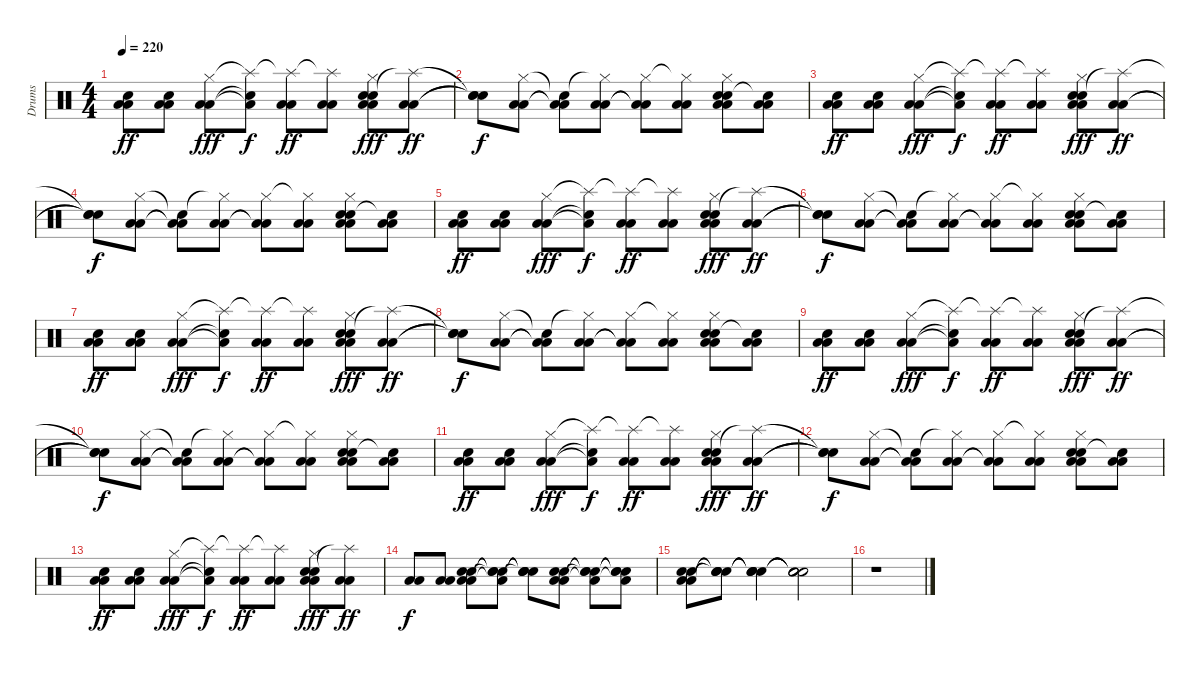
\track ("Drums" "Drums") {instrument percussion}
\staff {score}
\articulation defaults
\ts (4 4)
\tempo 220
\clef neutral
\ks c
("Low Floor Tom (hit)" "Low Floor Tom (hit)" "Electric Snare (hit)").8{dy ff} ("Low Floor Tom (hit)" "Low Floor Tom (hit)" "Electric Snare (hit)").8 ("Low Floor Tom (hit)" "Low Floor Tom (hit)" "Hi-Hat (closed)").8{dy fff} ("Low Floor Tom (hit)"{t} "Snare (hit)"{t} "Splash (hit)"{t}).8{dy f} ("Low Floor Tom (hit)" "Low Floor Tom (hit)" "Splash (hit)"{t}).8{dy ff} ("Low Floor Tom (hit)" "Low Floor Tom (hit)" "Splash (hit)"{t}).8 ("Low Floor Tom (hit)" "Low Floor Tom (hit)" "Electric Snare (hit)" "Snare (hit) 2" "Hi-Hat (closed)").8{dy fff} ("Low Floor Tom (hit)" "Low Floor Tom (hit)" "Splash (hit)"{t}).8{dy ff} |
("Snare (hit)"{t} "Snare (hit)"{t} "Snare (hit)"{t}).8{dy f} ("Low Floor Tom (hit)" "Low Floor Tom (hit)" "Hi-Hat (closed)").8 ("Low Floor Tom (hit)"{t} "Low Floor Tom (hit)"{t} "Snare (hit)"{t}).8 ("Low Floor Tom (hit)" "Low Floor Tom (hit)" "Hi-Hat (closed)"{t}).8 ("Low Floor Tom (hit)"{t} "Low Floor Tom (hit)"{t} "Hi-Hat (closed)").8 ("Low Floor Tom (hit)" "Low Floor Tom (hit)" "Hi-Hat (closed)"{t}).8 ("Low Floor Tom (hit)" "Low Floor Tom (hit)" "Electric Snare (hit)" "Snare (hit) 2" "Hi-Hat (closed)").8 ("Low Floor Tom (hit)" "Low Floor Tom (hit)" "Snare (hit)"{t}).8 |
("Low Floor Tom (hit)" "Low Floor Tom (hit)" "Electric Snare (hit)").8{dy ff} ("Low Floor Tom (hit)" "Low Floor Tom (hit)" "Electric Snare (hit)").8 ("Low Floor Tom (hit)" "Low Floor Tom (hit)" "Hi-Hat (closed)").8{dy fff} ("Low Floor Tom (hit)"{t} "Snare (hit)"{t} "Splash (hit)"{t}).8{dy f} ("Low Floor Tom (hit)" "Low Floor Tom (hit)" "Splash (hit)"{t}).8{dy ff} ("Low Floor Tom (hit)" "Low Floor Tom (hit)" "Splash (hit)"{t}).8 ("Low Floor Tom (hit)" "Low Floor Tom (hit)" "Electric Snare (hit)" "Snare (hit) 2" "Hi-Hat (closed)").8{dy fff} ("Low Floor Tom (hit)" "Low Floor Tom (hit)" "Splash (hit)"{t}).8{dy ff} |
("Snare (hit)"{t} "Snare (hit)"{t} "Snare (hit)"{t}).8{dy f} ("Low Floor Tom (hit)" "Low Floor Tom (hit)" "Hi-Hat (closed)").8 ("Low Floor Tom (hit)"{t} "Low Floor Tom (hit)"{t} "Snare (hit)"{t}).8 ("Low Floor Tom (hit)" "Low Floor Tom (hit)" "Hi-Hat (closed)"{t}).8 ("Low Floor Tom (hit)"{t} "Low Floor Tom (hit)"{t} "Hi-Hat (closed)").8 ("Low Floor Tom (hit)" "Low Floor Tom (hit)" "Hi-Hat (closed)"{t}).8 ("Low Floor Tom (hit)" "Low Floor Tom (hit)" "Electric Snare (hit)" "Snare (hit) 2" "Hi-Hat (closed)").8 ("Low Floor Tom (hit)" "Low Floor Tom (hit)" "Snare (hit)"{t}).8 |
("Low Floor Tom (hit)" "Low Floor Tom (hit)" "Electric Snare (hit)").8{dy ff} ("Low Floor Tom (hit)" "Low Floor Tom (hit)" "Electric Snare (hit)").8 ("Low Floor Tom (hit)" "Low Floor Tom (hit)" "Hi-Hat (closed)").8{dy fff} ("Low Floor Tom (hit)"{t} "Snare (hit)"{t} "Splash (hit)"{t}).8{dy f} ("Low Floor Tom (hit)" "Low Floor Tom (hit)" "Splash (hit)"{t}).8{dy ff} ("Low Floor Tom (hit)" "Low Floor Tom (hit)" "Splash (hit)"{t}).8 ("Low Floor Tom (hit)" "Low Floor Tom (hit)" "Electric Snare (hit)" "Snare (hit) 2" "Hi-Hat (closed)").8{dy fff} ("Low Floor Tom (hit)" "Low Floor Tom (hit)" "Splash (hit)"{t}).8{dy ff} |
("Snare (hit)"{t} "Snare (hit)"{t} "Snare (hit)"{t}).8{dy f} ("Low Floor Tom (hit)" "Low Floor Tom (hit)" "Hi-Hat (closed)").8 ("Low Floor Tom (hit)"{t} "Low Floor Tom (hit)"{t} "Snare (hit)"{t}).8 ("Low Floor Tom (hit)" "Low Floor Tom (hit)" "Hi-Hat (closed)"{t}).8 ("Low Floor Tom (hit)"{t} "Low Floor Tom (hit)"{t} "Hi-Hat (closed)").8 ("Low Floor Tom (hit)" "Low Floor Tom (hit)" "Hi-Hat (closed)"{t}).8 ("Low Floor Tom (hit)" "Low Floor Tom (hit)" "Electric Snare (hit)" "Snare (hit) 2" "Hi-Hat (closed)").8 ("Low Floor Tom (hit)" "Low Floor Tom (hit)" "Snare (hit)"{t}).8 |
("Low Floor Tom (hit)" "Low Floor Tom (hit)" "Electric Snare (hit)").8{dy ff} ("Low Floor Tom (hit)" "Low Floor Tom (hit)" "Electric Snare (hit)").8 ("Low Floor Tom (hit)" "Low Floor Tom (hit)" "Hi-Hat (closed)").8{dy fff} ("Low Floor Tom (hit)"{t} "Snare (hit)"{t} "Splash (hit)"{t}).8{dy f} ("Low Floor Tom (hit)" "Low Floor Tom (hit)" "Splash (hit)"{t}).8{dy ff} ("Low Floor Tom (hit)" "Low Floor Tom (hit)" "Splash (hit)"{t}).8 ("Low Floor Tom (hit)" "Low Floor Tom (hit)" "Electric Snare (hit)" "Snare (hit) 2" "Hi-Hat (closed)").8{dy fff} ("Low Floor Tom (hit)" "Low Floor Tom (hit)" "Splash (hit)"{t}).8{dy ff} |
("Snare (hit)"{t} "Snare (hit)"{t} "Snare (hit)"{t}).8{dy f} ("Low Floor Tom (hit)" "Low Floor Tom (hit)" "Hi-Hat (closed)").8 ("Low Floor Tom (hit)"{t} "Low Floor Tom (hit)"{t} "Snare (hit)"{t}).8 ("Low Floor Tom (hit)" "Low Floor Tom (hit)" "Hi-Hat (closed)"{t}).8 ("Low Floor Tom (hit)"{t} "Low Floor Tom (hit)"{t} "Hi-Hat (closed)").8 ("Low Floor Tom (hit)" "Low Floor Tom (hit)" "Hi-Hat (closed)"{t}).8 ("Low Floor Tom (hit)" "Low Floor Tom (hit)" "Electric Snare (hit)" "Snare (hit) 2" "Hi-Hat (closed)").8 ("Low Floor Tom (hit)" "Low Floor Tom (hit)" "Snare (hit)"{t}).8 |
("Low Floor Tom (hit)" "Low Floor Tom (hit)" "Electric Snare (hit)").8{dy ff} ("Low Floor Tom (hit)" "Low Floor Tom (hit)" "Electric Snare (hit)").8 ("Low Floor Tom (hit)" "Low Floor Tom (hit)" "Hi-Hat (closed)").8{dy fff} ("Low Floor Tom (hit)"{t} "Snare (hit)"{t} "Splash (hit)"{t}).8{dy f} ("Low Floor Tom (hit)" "Low Floor Tom (hit)" "Splash (hit)"{t}).8{dy ff} ("Low Floor Tom (hit)" "Low Floor Tom (hit)" "Splash (hit)"{t}).8 ("Low Floor Tom (hit)" "Low Floor Tom (hit)" "Electric Snare (hit)" "Snare (hit) 2" "Hi-Hat (closed)").8{dy fff} ("Low Floor Tom (hit)" "Low Floor Tom (hit)" "Splash (hit)"{t}).8{dy ff} |
("Snare (hit)"{t} "Snare (hit)"{t} "Snare (hit)"{t}).8{dy f} ("Low Floor Tom (hit)" "Low Floor Tom (hit)" "Hi-Hat (closed)").8 ("Low Floor Tom (hit)"{t} "Low Floor Tom (hit)"{t} "Snare (hit)"{t}).8 ("Low Floor Tom (hit)" "Low Floor Tom (hit)" "Hi-Hat (closed)"{t}).8 ("Low Floor Tom (hit)"{t} "Low Floor Tom (hit)"{t} "Hi-Hat (closed)").8 ("Low Floor Tom (hit)" "Low Floor Tom (hit)" "Hi-Hat (closed)"{t}).8 ("Low Floor Tom (hit)" "Low Floor Tom (hit)" "Electric Snare (hit)" "Snare (hit) 2" "Hi-Hat (closed)").8 ("Low Floor Tom (hit)" "Low Floor Tom (hit)" "Snare (hit)"{t}).8 |
("Low Floor Tom (hit)" "Low Floor Tom (hit)" "Electric Snare (hit)").8{dy ff} ("Low Floor Tom (hit)" "Low Floor Tom (hit)" "Electric Snare (hit)").8 ("Low Floor Tom (hit)" "Low Floor Tom (hit)" "Hi-Hat (closed)").8{dy fff} ("Low Floor Tom (hit)"{t} "Snare (hit)"{t} "Splash (hit)"{t}).8{dy f} ("Low Floor Tom (hit)" "Low Floor Tom (hit)" "Splash (hit)"{t}).8{dy ff} ("Low Floor Tom (hit)" "Low Floor Tom (hit)" "Splash (hit)"{t}).8 ("Low Floor Tom (hit)" "Low Floor Tom (hit)" "Electric Snare (hit)" "Snare (hit) 2" "Hi-Hat (closed)").8{dy fff} ("Low Floor Tom (hit)" "Low Floor Tom (hit)" "Splash (hit)"{t}).8{dy ff} |
("Snare (hit)"{t} "Snare (hit)"{t} "Snare (hit)"{t}).8{dy f} ("Low Floor Tom (hit)" "Low Floor Tom (hit)" "Hi-Hat (closed)").8 ("Low Floor Tom (hit)"{t} "Low Floor Tom (hit)"{t} "Snare (hit)"{t}).8 ("Low Floor Tom (hit)" "Low Floor Tom (hit)" "Hi-Hat (closed)"{t}).8 ("Low Floor Tom (hit)"{t} "Low Floor Tom (hit)"{t} "Hi-Hat (closed)").8 ("Low Floor Tom (hit)" "Low Floor Tom (hit)" "Hi-Hat (closed)"{t}).8 ("Low Floor Tom (hit)" "Low Floor Tom (hit)" "Electric Snare (hit)" "Snare (hit) 2" "Hi-Hat (closed)").8 ("Low Floor Tom (hit)" "Low Floor Tom (hit)" "Snare (hit)"{t}).8 |
("Low Floor Tom (hit)" "Low Floor Tom (hit)" "Electric Snare (hit)").8{dy ff} ("Low Floor Tom (hit)" "Low Floor Tom (hit)" "Electric Snare (hit)").8 ("Low Floor Tom (hit)" "Low Floor Tom (hit)" "Hi-Hat (closed)").8{dy fff} ("Low Floor Tom (hit)"{t} "Snare (hit)"{t} "Splash (hit)"{t}).8{dy f} ("Low Floor Tom (hit)" "Low Floor Tom (hit)" "Splash (hit)"{t}).8{dy ff} ("Low Floor Tom (hit)" "Low Floor Tom (hit)" "Splash (hit)"{t}).8 ("Low Floor Tom (hit)" "Low Floor Tom (hit)" "Electric Snare (hit)" "Snare (hit) 2" "Hi-Hat (closed)").8{dy fff} ("Low Floor Tom (hit)" "Low Floor Tom (hit)" "Splash (hit)"{t}).8{dy ff} |
("Low Floor Tom (hit)" "Low Floor Tom (hit)").8{dy f} ("Low Floor Tom (hit)" "Low Floor Tom (hit)").8 ("Low Floor Tom (hit)" "Low Floor Tom (hit)" "Electric Snare (hit)" "Snare (hit) 2").8 ("Low Floor Tom (hit)"{t} "Snare (hit)"{t} "Snare (hit)"{t} "Snare (hit)"{t}).8 ("Snare (hit)"{t} "Snare (hit)"{t} "Snare (hit)"{t} "Snare (hit)"{t}).8 ("Low Floor Tom (hit)" "Low Floor Tom (hit)" "Electric Snare (hit)" "Snare (hit) 2").8 ("Low Floor Tom (hit)"{t} "Snare (hit)"{t} "Snare (hit)"{t} "Snare (hit)"{t}).8 ("Low Floor Tom (hit)"{t} "Snare (hit)"{t} "Snare (hit)"{t} "Snare (hit)"{t}).8 |
("Low Floor Tom (hit)" "Low Floor Tom (hit)" "Electric Snare (hit)" "Snare (hit) 2").8 ("Snare (hit)"{t} "Snare (hit)"{t} "Snare (hit)"{t} "Snare (hit)"{t}).8 ("Snare (hit)"{t} "Snare (hit)"{t} "Snare (hit)"{t} "Snare (hit)"{t}).4 ("Snare (hit)"{t} "Snare (hit)"{t} "Snare (hit)"{t} "Snare (hit)"{t}).2 |
r.1
